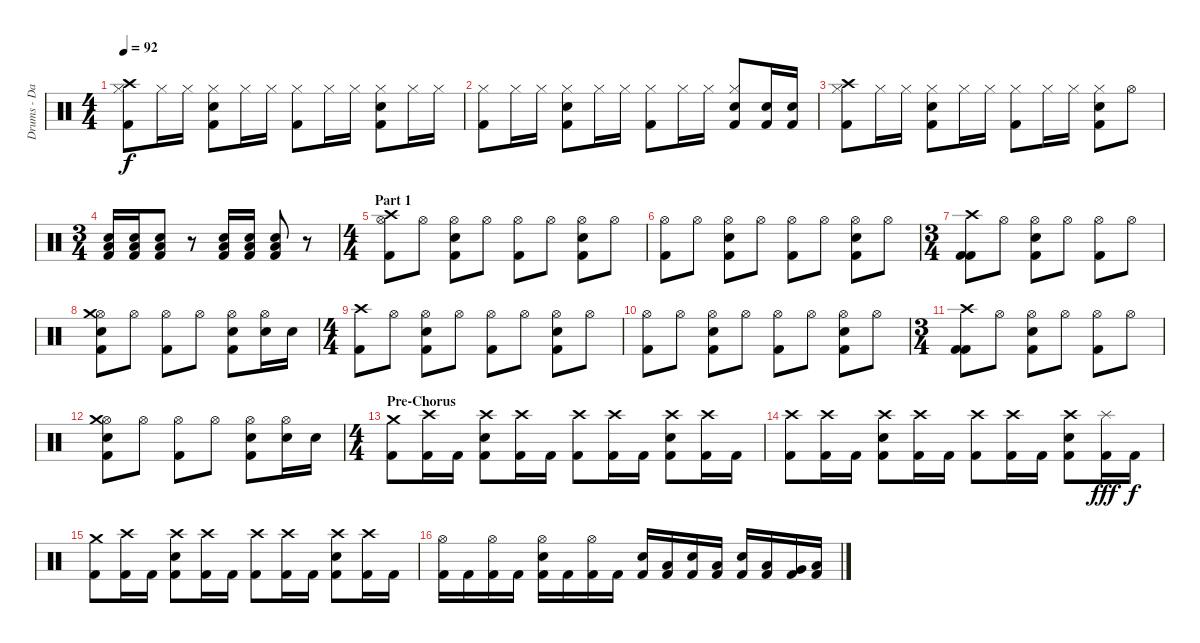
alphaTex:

\track ("Drums - Daniel Zimmermann" "Drums - Da") {instrument percussion}
\staff {score}
\articulation defaults
\ts (4 4)
\tempo 92
\clef neutral
\ks c
("Kick (hit) 2" "Hi-Hat (closed)" "Crash high (hit)").8{dy f} "Hi-Hat (closed)".16 "Hi-Hat (closed)".16 ("Kick (hit) 2" "Electric Snare (hit)" "Hi-Hat (closed)").8 "Hi-Hat (closed)".16 "Hi-Hat (closed)".16 ("Kick (hit) 2" "Hi-Hat (closed)").8 "Hi-Hat (closed)".16 "Hi-Hat (closed)".16 ("Kick (hit) 2" "Electric Snare (hit)" "Hi-Hat (closed)").8 "Hi-Hat (closed)".16 "Hi-Hat (closed)".16 |
("Kick (hit) 2" "Hi-Hat (closed)").8 "Hi-Hat (closed)".16 "Hi-Hat (closed)".16 ("Kick (hit) 2" "Electric Snare (hit)" "Hi-Hat (closed)").8 "Hi-Hat (closed)".16 "Hi-Hat (closed)".16 ("Kick (hit) 2" "Hi-Hat (closed)").8 "Hi-Hat (closed)".16 "Hi-Hat (closed)".16 ("Kick (hit) 2" "Electric Snare (hit)" "Hi-Hat (closed)").8 ("Kick (hit) 2" "Electric Snare (hit)").16 ("Kick (hit) 2" "Electric Snare (hit)").16 |
("Kick (hit) 2" "Hi-Hat (closed)" "Crash high (hit)").8 "Hi-Hat (closed)".16 "Hi-Hat (closed)".16 ("Kick (hit) 2" "Electric Snare (hit)" "Hi-Hat (closed)").8 "Hi-Hat (closed)".16 "Hi-Hat (closed)".16 ("Kick (hit) 2" "Hi-Hat (closed)").8 "Hi-Hat (closed)".16 "Hi-Hat (closed)".16 ("Kick (hit) 2" "Electric Snare (hit)" "Hi-Hat (closed)").8 "Hi-Hat (open)".8 |
\ts (3 4)
("Kick (hit) 2" "Electric Snare (hit)" "Low Tom (hit)").16 ("Kick (hit) 2" "Electric Snare (hit)" "Low Tom (hit)").16 ("Kick (hit) 2" "Electric Snare (hit)" "Low Tom (hit)").8 r.8 ("Kick (hit) 2" "Electric Snare (hit)" "Low Tom (hit)").16 ("Kick (hit) 2" "Electric Snare (hit)" "Low Tom (hit)").16 ("Kick (hit) 2" "Electric Snare (hit)" "Low Tom (hit)").8 r.8 |
\ts (4 4)
\section ("" "Part 1")
("Kick (hit) 2" "Hi-Hat (open)" "Crash high (hit)").8 "Hi-Hat (open)".8 ("Kick (hit) 2" "Electric Snare (hit)" "Hi-Hat (open)").8 "Hi-Hat (open)".8 ("Kick (hit) 2" "Hi-Hat (open)").8 "Hi-Hat (open)".8 ("Kick (hit) 2" "Electric Snare (hit)" "Hi-Hat (open)").8 "Hi-Hat (open)".8 |
("Kick (hit) 2" "Hi-Hat (open)").8 "Hi-Hat (open)".8 ("Kick (hit) 2" "Electric Snare (hit)" "Hi-Hat (open)").8 "Hi-Hat (open)".8 ("Kick (hit) 2" "Hi-Hat (open)").8 "Hi-Hat (open)".8 ("Kick (hit) 2" "Electric Snare (hit)" "Hi-Hat (open)").8 "Hi-Hat (open)".8 |
\ts (3 4)
("Kick (hit) 2" "Kick (hit) 2" "Crash high (hit)").8 "Hi-Hat (open)".8 ("Kick (hit) 2" "Electric Snare (hit)" "Hi-Hat (open)").8 "Hi-Hat (open)".8 ("Kick (hit) 2" "Hi-Hat (open)").8 "Hi-Hat (open)".8 |
("Kick (hit) 2" "Electric Snare (hit)" "Hi-Hat (open)" "Crash medium (hit)").8 "Hi-Hat (open)".8 ("Kick (hit) 2" "Hi-Hat (open)").8 "Hi-Hat (open)".8 ("Kick (hit) 2" "Electric Snare (hit)" "Hi-Hat (open)").8 ("Electric Snare (hit)" "Hi-Hat (open)").16 "Electric Snare (hit)".16 |
\ts (4 4)
("Kick (hit) 2" "Crash high (hit)").8 "Hi-Hat (open)".8 ("Kick (hit) 2" "Electric Snare (hit)" "Hi-Hat (open)").8 "Hi-Hat (open)".8 ("Kick (hit) 2" "Hi-Hat (open)").8 "Hi-Hat (open)".8 ("Kick (hit) 2" "Electric Snare (hit)" "Hi-Hat (open)").8 "Hi-Hat (open)".8 |
("Kick (hit) 2" "Hi-Hat (open)").8 "Hi-Hat (open)".8 ("Kick (hit) 2" "Electric Snare (hit)" "Hi-Hat (open)").8 "Hi-Hat (open)".8 ("Kick (hit) 2" "Hi-Hat (open)").8 "Hi-Hat (open)".8 ("Kick (hit) 2" "Electric Snare (hit)" "Hi-Hat (open)").8 "Hi-Hat (open)".8 |
\ts (3 4)
("Kick (hit) 2" "Kick (hit) 2" "Crash high (hit)").8 "Hi-Hat (open)".8 ("Kick (hit) 2" "Electric Snare (hit)" "Hi-Hat (open)").8 "Hi-Hat (open)".8 ("Kick (hit) 2" "Hi-Hat (open)").8 "Hi-Hat (open)".8 |
("Kick (hit) 2" "Electric Snare (hit)" "Hi-Hat (open)" "Crash medium (hit)").8 "Hi-Hat (open)".8 ("Kick (hit) 2" "Hi-Hat (open)").8 "Hi-Hat (open)".8 ("Kick (hit) 2" "Electric Snare (hit)" "Hi-Hat (open)").8 ("Electric Snare (hit)" "Hi-Hat (open)").16 "Electric Snare (hit)".16 |
\ts (4 4)
\section ("" "Pre-Chorus")
("Kick (hit) 2" "Crash medium (hit)").8 ("Kick (hit) 2" "Crash high (hit)").16 "Kick (hit) 2".16 ("Kick (hit) 2" "Electric Snare (hit)" "Crash high (hit)").8 ("Kick (hit) 2" "Crash high (hit)").16 "Kick (hit) 2".16 ("Kick (hit) 2" "Crash high (hit)").8 ("Kick (hit) 2" "Crash high (hit)").16 "Kick (hit) 2".16 ("Kick (hit) 2" "Electric Snare (hit)" "Crash high (hit)").8 ("Kick (hit) 2" "Crash high (hit)").16 "Kick (hit) 2".16 |
("Kick (hit) 2" "Crash high (hit)").8 ("Kick (hit) 2" "Crash high (hit)").16 "Kick (hit) 2".16 ("Kick (hit) 2" "Electric Snare (hit)" "Crash high (hit)").8 ("Kick (hit) 2" "Crash high (hit)").16 "Kick (hit) 2".16 ("Kick (hit) 2" "Crash high (hit)").8 ("Kick (hit) 2" "Crash high (hit)").16 "Kick (hit) 2".16 ("Kick (hit) 2" "Electric Snare (hit)" "Crash high (hit)").8 ("Kick (hit) 2" "Splash (hit)").16{dy fff} "Kick (hit) 2".16{dy f} |
("Kick (hit) 2" "Crash medium (hit)").8 ("Kick (hit) 2" "Crash high (hit)").16 "Kick (hit) 2".16 ("Kick (hit) 2" "Electric Snare (hit)" "Crash high (hit)").8 ("Kick (hit) 2" "Crash high (hit)").16 "Kick (hit) 2".16 ("Kick (hit) 2" "Crash high (hit)").8 ("Kick (hit) 2" "Crash high (hit)").16 "Kick (hit) 2".16 ("Kick (hit) 2" "Electric Snare (hit)" "Crash high (hit)").8 ("Kick (hit) 2" "Crash high (hit)").16 "Kick (hit) 2".16 |
("Kick (hit) 2" "Hi-Hat (open)").16 "Kick (hit) 2".16 ("Kick (hit) 2" "Hi-Hat (open)").16 "Kick (hit) 2".16 ("Kick (hit) 2" "Electric Snare (hit)" "Hi-Hat (open)").16 "Kick (hit) 2".16 ("Kick (hit) 2" "Hi-Hat (open)").16 "Kick (hit) 2".16 ("Kick (hit) 2" "Electric Snare (hit)").16 ("Kick (hit) 2" "Low Tom (hit)").16 ("Kick (hit) 2" "Electric Snare (hit)").16 ("Kick (hit) 2" "Low Tom (hit)").16 ("Kick (hit) 2" "Electric Snare (hit)").16 ("Kick (hit) 2" "Low Tom (hit)").16 ("Kick (hit) 2" "Very Low Tom (hit)").16 ("Kick (hit) 2" "Low Floor Tom (hit)").16
